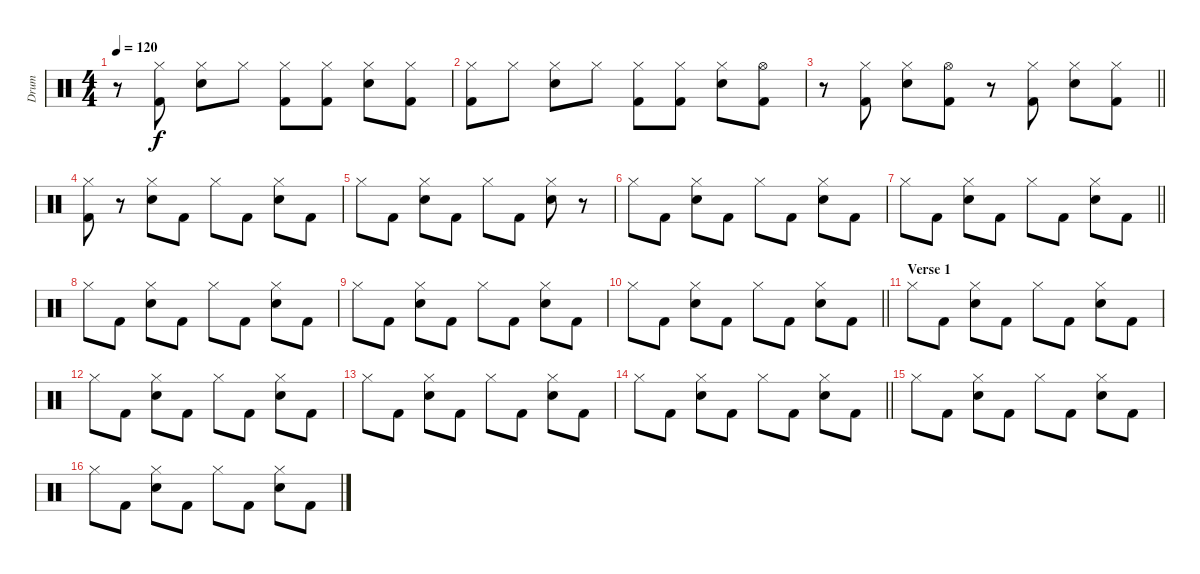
\track ("Drum" "Drum") {instrument percussion}
\staff {score}
\articulation defaults
\ts (4 4)
\tempo 120
\clef neutral
\ks c
r.8{dy f} ("Hi-Hat (closed)" "Kick (hit) 2").8 ("Hi-Hat (closed)" "Electric Snare (hit)").8 "Hi-Hat (closed)".8 ("Hi-Hat (closed)" "Kick (hit) 2").8 ("Hi-Hat (closed)" "Kick (hit) 2").8 ("Hi-Hat (closed)" "Electric Snare (hit)").8 ("Hi-Hat (closed)" "Kick (hit) 2").8 |
("Hi-Hat (closed)" "Kick (hit) 2").8 "Hi-Hat (closed)".8 ("Hi-Hat (closed)" "Electric Snare (hit)").8 "Hi-Hat (closed)".8 ("Hi-Hat (closed)" "Kick (hit) 2").8 ("Hi-Hat (closed)" "Kick (hit) 2").8 ("Hi-Hat (closed)" "Electric Snare (hit)").8 ("Hi-Hat (open)" "Kick (hit) 2").8 |
\barLineRight lightlight
r.8 ("Hi-Hat (closed)" "Kick (hit) 2").8 ("Hi-Hat (closed)" "Electric Snare (hit)").8 ("Hi-Hat (open)" "Kick (hit) 2").8 r.8 ("Hi-Hat (closed)" "Kick (hit) 2").8 ("Hi-Hat (closed)" "Electric Snare (hit)").8 ("Hi-Hat (closed)" "Kick (hit) 2").8 |
("Hi-Hat (closed)" "Kick (hit) 2").8 r.8 ("Hi-Hat (closed)" "Electric Snare (hit)").8 "Kick (hit) 2".8 "Hi-Hat (closed)".8 "Kick (hit) 2".8 ("Hi-Hat (closed)" "Electric Snare (hit)").8 "Kick (hit) 2".8 |
"Hi-Hat (closed)".8 "Kick (hit) 2".8 ("Hi-Hat (closed)" "Electric Snare (hit)").8 "Kick (hit) 2".8 "Hi-Hat (closed)".8 "Kick (hit) 2".8 ("Hi-Hat (closed)" "Electric Snare (hit)").8 r.8 |
"Hi-Hat (closed)".8 "Kick (hit) 2".8 ("Hi-Hat (closed)" "Electric Snare (hit)").8 "Kick (hit) 2".8 "Hi-Hat (closed)".8 "Kick (hit) 2".8 ("Hi-Hat (closed)" "Electric Snare (hit)").8 "Kick (hit) 2".8 |
\barLineRight lightlight "Hi-Hat (closed)".8 "Kick (hit) 2".8
("Hi-Hat (closed)" "Electric Snare (hit)").8 "Kick (hit) 2".8 "Hi-Hat (closed)".8 "Kick (hit) 2".8 ("Hi-Hat (closed)" "Electric Snare (hit)").8 "Kick (hit) 2".8 |
"Hi-Hat (closed)".8 "Kick (hit) 2".8 ("Hi-Hat (closed)" "Electric Snare (hit)").8 "Kick (hit) 2".8 "Hi-Hat (closed)".8 "Kick (hit) 2".8 ("Hi-Hat (closed)" "Electric Snare (hit)").8 "Kick (hit) 2".8 |
"Hi-Hat (closed)".8 "Kick (hit) 2".8 ("Hi-Hat (closed)" "Electric Snare (hit)").8 "Kick (hit) 2".8 "Hi-Hat (closed)".8 "Kick (hit) 2".8 ("Hi-Hat (closed)" "Electric Snare (hit)").8 "Kick (hit) 2".8 |
\barLineRight lightlight "Hi-Hat (closed)".8 "Kick (hit) 2".8
("Hi-Hat (closed)" "Electric Snare (hit)").8 "Kick (hit) 2".8 "Hi-Hat (closed)".8 "Kick (hit) 2".8 ("Hi-Hat (closed)" "Electric Snare (hit)").8 "Kick (hit) 2".8 |
\section ("" "Verse 1")
"Hi-Hat (closed)".8 "Kick (hit) 2".8 ("Hi-Hat (closed)" "Electric Snare (hit)").8 "Kick (hit) 2".8 "Hi-Hat (closed)".8 "Kick (hit) 2".8 ("Hi-Hat (closed)" "Electric Snare (hit)").8 "Kick (hit) 2".8 |
"Hi-Hat (closed)".8 "Kick (hit) 2".8 ("Hi-Hat (closed)" "Electric Snare (hit)").8 "Kick (hit) 2".8 "Hi-Hat (closed)".8 "Kick (hit) 2".8 ("Hi-Hat (closed)" "Electric Snare (hit)").8 "Kick (hit) 2".8 |
"Hi-Hat (closed)".8 "Kick (hit) 2".8 ("Hi-Hat (closed)" "Electric Snare (hit)").8 "Kick (hit) 2".8 "Hi-Hat (closed)".8 "Kick (hit) 2".8 ("Hi-Hat (closed)" "Electric Snare (hit)").8 "Kick (hit) 2".8 |
\barLineRight lightlight "Hi-Hat (closed)".8 "Kick (hit) 2".8
("Hi-Hat (closed)" "Electric Snare (hit)").8 "Kick (hit) 2".8 "Hi-Hat (closed)".8 "Kick (hit) 2".8 ("Hi-Hat (closed)" "Electric Snare (hit)").8 "Kick (hit) 2".8 |
"Hi-Hat (closed)".8 "Kick (hit) 2".8 ("Hi-Hat (closed)" "Electric Snare (hit)").8 "Kick (hit) 2".8 "Hi-Hat (closed)".8 "Kick (hit) 2".8 ("Hi-Hat (closed)" "Electric Snare (hit)").8 "Kick (hit) 2".8 |
"Hi-Hat (closed)".8 "Kick (hit) 2".8 ("Hi-Hat (closed)" "Electric Snare (hit)").8 "Kick (hit) 2".8 "Hi-Hat (closed)".8 "Kick (hit) 2".8 ("Hi-Hat (closed)" "Electric Snare (hit)").8 "Kick (hit) 2".8
